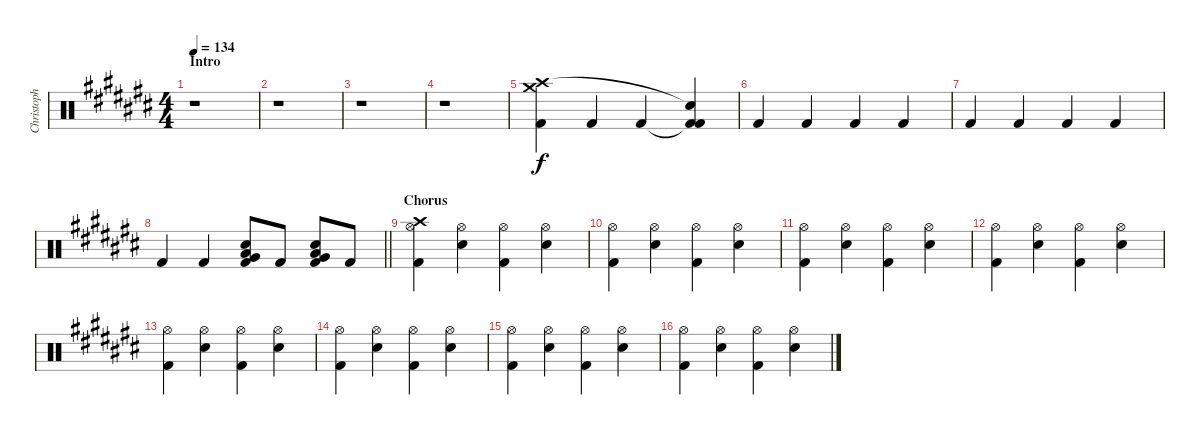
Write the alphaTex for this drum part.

\track ("Christoph Doom Schneider - Drums" "Christoph ") {instrument percussion}
\staff {score}
\articulation defaults
\ts (4 4)
\section ("" "Intro")
\tempo 134
\clef neutral
\ks c#
r.1{dy f} |
r.1 |
r.1 |
r.1 |
("Crash medium (hit)" "Crash high (hit)" "Kick (hit) 2").4 "Kick (hit) 2".4 "Kick (hit) 2".4 ("Kick (hit) 2"{t} "Snare (hit)"{t} "Kick (hit) 2").4 |
"Kick (hit) 2".4 "Kick (hit) 2".4 "Kick (hit) 2".4 "Kick (hit) 2".4 |
"Kick (hit) 2".4 "Kick (hit) 2".4 "Kick (hit) 2".4 "Kick (hit) 2".4 |
\barLineRight lightlight "Kick (hit) 2".4 "Kick (hit) 2".4
("Low Floor Tom (hit)" "Electric Snare (hit)" "Very Low Tom (hit)" "Kick (hit) 2").8 "Kick (hit) 2".8 ("Low Floor Tom (hit)" "Electric Snare (hit)" "Very Low Tom (hit)" "Kick (hit) 2").8 "Kick (hit) 2".8 |
\section ("" "Chorus")
("Crash high (hit)" "Hi-Hat (open)" "Kick (hit) 2").4 ("Hi-Hat (open)" "Electric Snare (hit)").4 ("Hi-Hat (open)" "Kick (hit) 2").4 ("Hi-Hat (open)" "Electric Snare (hit)").4 |
("Hi-Hat (open)" "Kick (hit) 2").4 ("Hi-Hat (open)" "Electric Snare (hit)").4 ("Hi-Hat (open)" "Kick (hit) 2").4 ("Hi-Hat (open)" "Electric Snare (hit)").4 |
("Hi-Hat (open)" "Kick (hit) 2").4 ("Hi-Hat (open)" "Electric Snare (hit)").4 ("Hi-Hat (open)" "Kick (hit) 2").4 ("Hi-Hat (open)" "Electric Snare (hit)").4 |
("Hi-Hat (open)" "Kick (hit) 2").4 ("Hi-Hat (open)" "Electric Snare (hit)").4 ("Hi-Hat (open)" "Kick (hit) 2").4 ("Hi-Hat (open)" "Electric Snare (hit)").4 |
("Hi-Hat (open)" "Kick (hit) 2").4 ("Hi-Hat (open)" "Electric Snare (hit)").4 ("Hi-Hat (open)" "Kick (hit) 2").4 ("Hi-Hat (open)" "Electric Snare (hit)").4 |
("Hi-Hat (open)" "Kick (hit) 2").4 ("Hi-Hat (open)" "Electric Snare (hit)").4 ("Hi-Hat (open)" "Kick (hit) 2").4 ("Hi-Hat (open)" "Electric Snare (hit)").4 |
("Hi-Hat (open)" "Kick (hit) 2").4 ("Hi-Hat (open)" "Electric Snare (hit)").4 ("Hi-Hat (open)" "Kick (hit) 2").4 ("Hi-Hat (open)" "Electric Snare (hit)").4 |
("Hi-Hat (open)" "Kick (hit) 2").4 ("Hi-Hat (open)" "Electric Snare (hit)").4 ("Hi-Hat (open)" "Kick (hit) 2").4 ("Hi-Hat (open)" "Electric Snare (hit)").4
